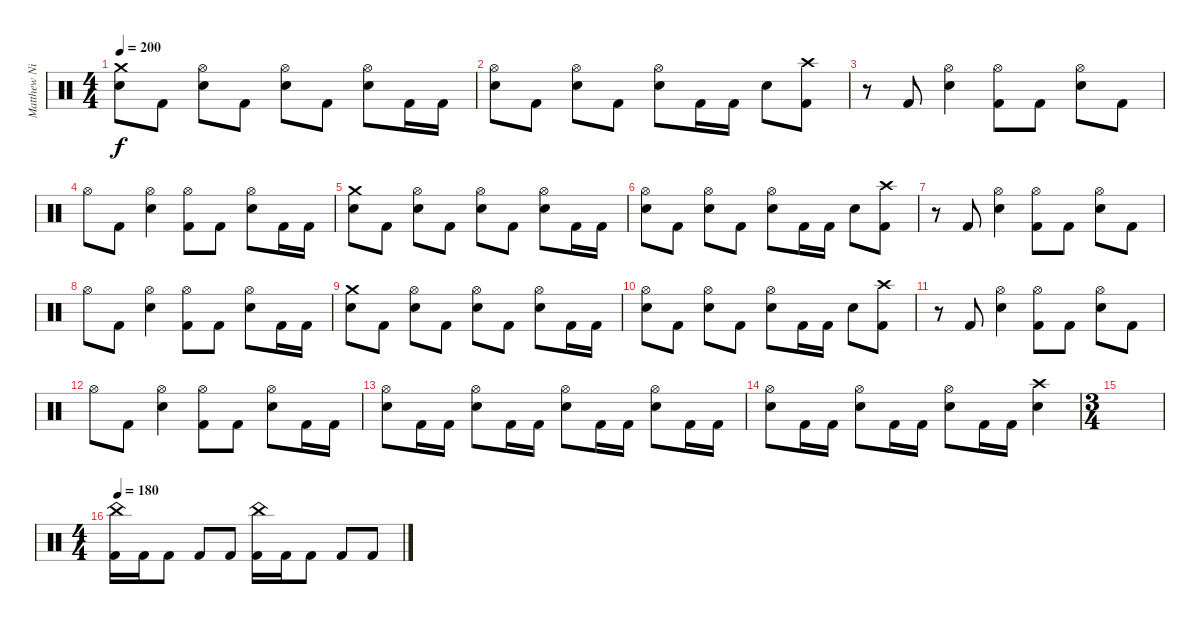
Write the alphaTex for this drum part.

\track ("Matthew Nicholls" "Matthew Ni") {instrument percussion}
\staff {score}
\articulation defaults
\ts (4 4)
\tempo 200
\clef neutral
\ks c
("Crash medium (hit)" "Electric Snare (hit)").8{dy f} "Kick (hit) 2".8 ("Hi-Hat (open)" "Electric Snare (hit)").8 "Kick (hit) 2".8 ("Hi-Hat (open)" "Electric Snare (hit)").8 "Kick (hit) 2".8 ("Hi-Hat (open)" "Electric Snare (hit)").8 "Kick (hit) 2".16 "Kick (hit) 2".16 |
("Hi-Hat (open)" "Electric Snare (hit)").8 "Kick (hit) 2".8 ("Hi-Hat (open)" "Electric Snare (hit)").8 "Kick (hit) 2".8 ("Hi-Hat (open)" "Electric Snare (hit)").8 "Kick (hit) 2".16 "Kick (hit) 2".16 "Electric Snare (hit)".8 ("Crash high (hit)" "Kick (hit) 2").8 |
r.8 "Kick (hit) 2".8 ("Hi-Hat (open)" "Electric Snare (hit)").4 ("Hi-Hat (open)" "Kick (hit) 2").8 "Kick (hit) 2".8 ("Hi-Hat (open)" "Electric Snare (hit)").8 "Kick (hit) 2".8 |
"Hi-Hat (open)".8 "Kick (hit) 2".8 ("Hi-Hat (open)" "Electric Snare (hit)").4 ("Hi-Hat (open)" "Kick (hit) 2").8 "Kick (hit) 2".8 ("Hi-Hat (open)" "Electric Snare (hit)").8 "Kick (hit) 2".16 "Kick (hit) 2".16 |
("Crash medium (hit)" "Electric Snare (hit)").8 "Kick (hit) 2".8 ("Hi-Hat (open)" "Electric Snare (hit)").8 "Kick (hit) 2".8 ("Hi-Hat (open)" "Electric Snare (hit)").8 "Kick (hit) 2".8 ("Hi-Hat (open)" "Electric Snare (hit)").8 "Kick (hit) 2".16 "Kick (hit) 2".16 |
("Hi-Hat (open)" "Electric Snare (hit)").8 "Kick (hit) 2".8 ("Hi-Hat (open)" "Electric Snare (hit)").8 "Kick (hit) 2".8 ("Hi-Hat (open)" "Electric Snare (hit)").8 "Kick (hit) 2".16 "Kick (hit) 2".16 "Electric Snare (hit)".8 ("Crash high (hit)" "Kick (hit) 2").8 |
r.8 "Kick (hit) 2".8 ("Hi-Hat (open)" "Electric Snare (hit)").4 ("Hi-Hat (open)" "Kick (hit) 2").8 "Kick (hit) 2".8 ("Hi-Hat (open)" "Electric Snare (hit)").8 "Kick (hit) 2".8 |
"Hi-Hat (open)".8 "Kick (hit) 2".8 ("Hi-Hat (open)" "Electric Snare (hit)").4 ("Hi-Hat (open)" "Kick (hit) 2").8 "Kick (hit) 2".8 ("Hi-Hat (open)" "Electric Snare (hit)").8 "Kick (hit) 2".16 "Kick (hit) 2".16 |
("Crash medium (hit)" "Electric Snare (hit)").8 "Kick (hit) 2".8 ("Hi-Hat (open)" "Electric Snare (hit)").8 "Kick (hit) 2".8 ("Hi-Hat (open)" "Electric Snare (hit)").8 "Kick (hit) 2".8 ("Hi-Hat (open)" "Electric Snare (hit)").8 "Kick (hit) 2".16 "Kick (hit) 2".16 |
("Hi-Hat (open)" "Electric Snare (hit)").8 "Kick (hit) 2".8 ("Hi-Hat (open)" "Electric Snare (hit)").8 "Kick (hit) 2".8 ("Hi-Hat (open)" "Electric Snare (hit)").8 "Kick (hit) 2".16 "Kick (hit) 2".16 "Electric Snare (hit)".8 ("Crash high (hit)" "Kick (hit) 2").8 |
r.8 "Kick (hit) 2".8 ("Hi-Hat (open)" "Electric Snare (hit)").4 ("Hi-Hat (open)" "Kick (hit) 2").8 "Kick (hit) 2".8 ("Hi-Hat (open)" "Electric Snare (hit)").8 "Kick (hit) 2".8 |
"Hi-Hat (open)".8 "Kick (hit) 2".8 ("Hi-Hat (open)" "Electric Snare (hit)").4 ("Hi-Hat (open)" "Kick (hit) 2").8 "Kick (hit) 2".8 ("Hi-Hat (open)" "Electric Snare (hit)").8 "Kick (hit) 2".16 "Kick (hit) 2".16 |
("Hi-Hat (open)" "Electric Snare (hit)").8 "Kick (hit) 2".16 "Kick (hit) 2".16 ("Hi-Hat (open)" "Electric Snare (hit)").8 "Kick (hit) 2".16 "Kick (hit) 2".16 ("Hi-Hat (open)" "Electric Snare (hit)").8 "Kick (hit) 2".16 "Kick (hit) 2".16 ("Hi-Hat (open)" "Electric Snare (hit)").8 "Kick (hit) 2".16 "Kick (hit) 2".16 |
("Hi-Hat (open)" "Electric Snare (hit)").8 "Kick (hit) 2".16 "Kick (hit) 2".16 ("Hi-Hat (open)" "Electric Snare (hit)").8 "Kick (hit) 2".16 "Kick (hit) 2".16 ("Hi-Hat (open)" "Electric Snare (hit)").8 "Kick (hit) 2".16 "Kick (hit) 2".16 ("Crash high (hit)" "Electric Snare (hit)").4 |
\ts (3 4)
|
\ts (4 4)
\tempo 180
("China (hit)" "Kick (hit) 2").16 "Kick (hit) 2".16 "Kick (hit) 2".8 "Kick (hit) 2".8 "Kick (hit) 2".8 ("China (hit)" "Kick (hit) 2").16 "Kick (hit) 2".16 "Kick (hit) 2".8 "Kick (hit) 2".8 "Kick (hit) 2".8
